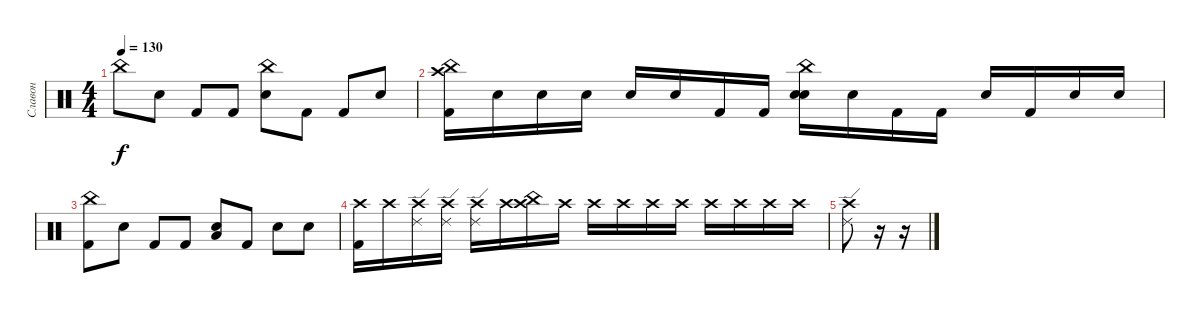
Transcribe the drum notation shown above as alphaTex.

\track ("Славон" "Славон") {instrument percussion}
\staff {score}
\articulation defaults
\ts (4 4)
\tempo 130
\clef neutral
\ks c "China (hit)".8{dy f} "Electric Snare (hit)".8 "Kick (hit) 2".8 "Kick (hit) 2".8
("China (hit)" "Electric Snare (hit)").8 "Kick (hit) 2".8 "Kick (hit) 2".8 "Electric Snare (hit)".8 |
("Crash high (hit)" "China (hit)" "Kick (hit) 2").16 "Snare (hit)".16 "Snare (hit)".16 "Snare (hit)".16 "Snare (hit)".16 "Snare (hit)".16 "Kick (hit) 2".16 "Kick (hit) 2".16 ("China (hit)" "Electric Snare (hit)" "Snare (hit)").16 "Snare (hit)".16 "Kick (hit) 2".16 "Kick (hit) 2".16 "Snare (hit)".16 "Kick (hit) 2".16 "Electric Snare (hit)".16 "Snare (hit)".16 |
("China (hit)" "Kick (hit) 2").8 "Electric Snare (hit)".8 "Kick (hit) 2".8 "Kick (hit) 2".8 ("Low Tom (hit)" "Electric Snare (hit)").8 "Kick (hit) 2".8 "Electric Snare (hit)".8 "Electric Snare (hit)".8 |
("Crash high (hit)" "Kick (hit) 2").16 "Crash high (hit)".16 ("Crash high (hit)" "Ride (edge) 2").16 ("Crash high (hit)" "Ride (edge) 2").16 ("Crash high (hit)" "Ride (edge) 2").16 "Crash high (hit)".16 ("Crash high (hit)" "China (hit)").16 "Crash high (hit)".16 "Crash high (hit)".16 "Crash high (hit)".16 "Crash high (hit)".16 "Crash high (hit)".16 "Crash high (hit)".16 "Crash high (hit)".16 "Crash high (hit)".16 "Crash high (hit)".16 |
("Crash high (hit)" "Ride (edge) 2").8 r.16 r.16
